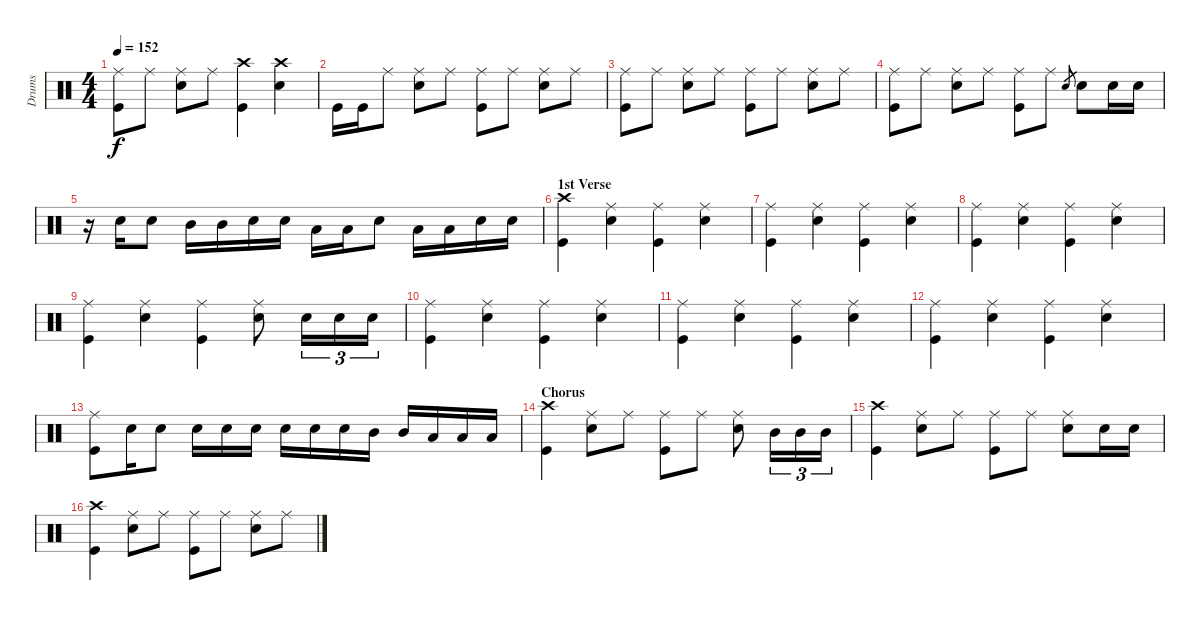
\track ("Drums" "Drums") {instrument percussion}
\staff {score}
\articulation defaults
\ts (4 4)
\tempo 152
\clef neutral
\ks c
("Ride (middle)" "Kick (hit)").8{dy f} "Ride (middle)".8 ("Ride (middle)" "Snare (hit) 2").8 "Ride (middle)".8 ("Crash high (hit)" "Kick (hit)").4 ("Crash high (hit)" "Snare (hit) 2").4 |
"Kick (hit)".16 "Kick (hit)".16 "Ride (middle)".8 ("Ride (middle)" "Snare (hit) 2").8 "Ride (middle)".8 ("Ride (middle)" "Kick (hit)").8 "Ride (middle)".8 ("Ride (middle)" "Snare (hit) 2").8 "Ride (middle)".8 |
("Ride (middle)" "Kick (hit)").8 "Ride (middle)".8 ("Ride (middle)" "Snare (hit) 2").8 "Ride (middle)".8 ("Ride (middle)" "Kick (hit)").8 "Ride (middle)".8 ("Ride (middle)" "Snare (hit) 2").8 "Ride (middle)".8 |
("Ride (middle)" "Kick (hit)").8 "Ride (middle)".8 ("Ride (middle)" "Snare (hit) 2").8 "Ride (middle)".8 ("Ride (middle)" "Kick (hit)").8 "Ride (middle)".8 "Snare (hit) 2".8{gr} "Snare (hit) 2".8 "Snare (hit) 2".16 "Snare (hit) 2".16 |
r.16 "Snare (hit) 2".16 "Snare (hit) 2".8 "Mid Tom (hit)".16 "Mid Tom (hit)".16 "Snare (hit) 2".16 "Snare (hit) 2".16 "Low Tom (hit)".16 "Low Tom (hit)".16 "Snare (hit) 2".8 "Low Tom (hit)".16 "Low Tom (hit)".16 "Snare (hit) 2".16 "Snare (hit) 2".16 |
\section ("" "1st Verse")
("Crash high (hit)" "Kick (hit)").4 ("Ride (middle)" "Snare (hit) 2").4 ("Ride (middle)" "Kick (hit)").4 ("Ride (middle)" "Snare (hit) 2").4 |
("Ride (middle)" "Kick (hit)").4 ("Ride (middle)" "Snare (hit) 2").4 ("Ride (middle)" "Kick (hit)").4 ("Ride (middle)" "Snare (hit) 2").4 |
("Ride (middle)" "Kick (hit)").4 ("Ride (middle)" "Snare (hit) 2").4 ("Ride (middle)" "Kick (hit)").4 ("Ride (middle)" "Snare (hit) 2").4 |
("Ride (middle)" "Kick (hit)").4 ("Ride (middle)" "Snare (hit) 2").4 ("Ride (middle)" "Kick (hit)").4 ("Ride (middle)" "Snare (hit) 2").8 "Snare (hit) 2".16{tu (3 2)} "Snare (hit) 2".16{tu (3 2)} "Snare (hit) 2".16{tu (3 2)} |
("Ride (middle)" "Kick (hit)").4 ("Ride (middle)" "Snare (hit) 2").4 ("Ride (middle)" "Kick (hit)").4 ("Ride (middle)" "Snare (hit) 2").4 |
("Ride (middle)" "Kick (hit)").4 ("Ride (middle)" "Snare (hit) 2").4 ("Ride (middle)" "Kick (hit)").4 ("Ride (middle)" "Snare (hit) 2").4 |
("Ride (middle)" "Kick (hit)").4 ("Ride (middle)" "Snare (hit) 2").4 ("Ride (middle)" "Kick (hit)").4 ("Ride (middle)" "Snare (hit) 2").4 |
("Ride (middle)" "Kick (hit)").8 "Snare (hit) 2".16 "Snare (hit) 2".8 "Snare (hit) 2".16 "Snare (hit) 2".16 "Snare (hit) 2".16 "Snare (hit) 2".16 "Snare (hit) 2".16 "Snare (hit) 2".16 "Mid Tom (hit)".16 "Mid Tom (hit)".16 "Low Tom (hit)".16 "Low Tom (hit)".16 "Low Tom (hit)".16 |
\section ("" "Chorus")
("Crash high (hit)" "Kick (hit)").4 ("Ride (middle)" "Snare (hit) 2").8 "Ride (middle)".8 ("Ride (middle)" "Kick (hit)").8 "Ride (middle)".8 ("Ride (middle)" "Snare (hit) 2").8 "Mid Tom (hit)".16{tu (3 2)} "Mid Tom (hit)".16{tu (3 2)} "Mid Tom (hit)".16{tu (3 2)} |
("Crash high (hit)" "Kick (hit)").4 ("Ride (middle)" "Snare (hit) 2").8 "Ride (middle)".8 ("Ride (middle)" "Kick (hit)").8 "Ride (middle)".8 ("Ride (middle)" "Snare (hit) 2").8 "Snare (hit) 2".16 "Snare (hit) 2".16 |
("Crash high (hit)" "Kick (hit)").4 ("Ride (middle)" "Snare (hit) 2").8 "Ride (middle)".8 ("Ride (middle)" "Kick (hit)").8 "Ride (middle)".8 ("Ride (middle)" "Snare (hit) 2").8 "Ride (middle)".8
